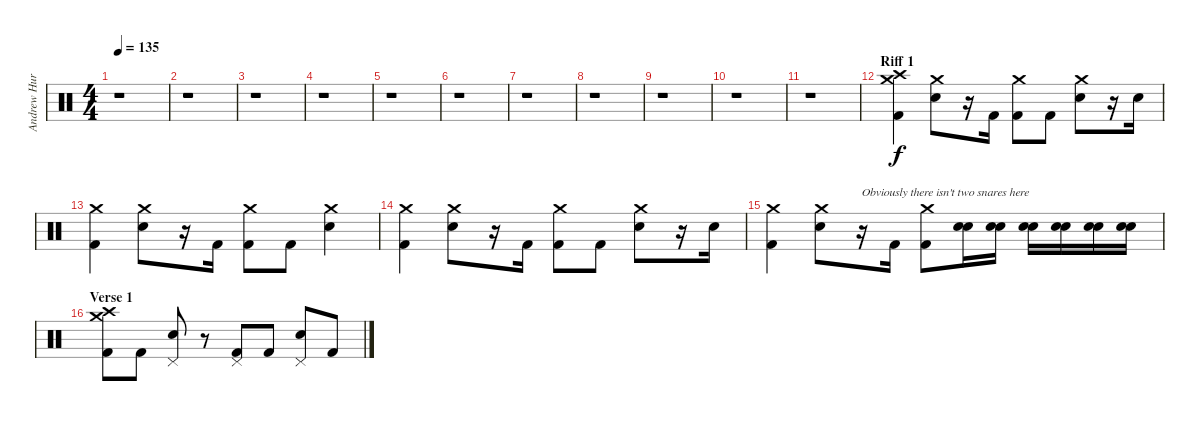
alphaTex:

\track ("Andrew Hurley (Drums)" "Andrew Hur") {instrument percussion}
\staff {score}
\articulation defaults
\ts (4 4)
\tempo 135
\clef neutral
\ks c
r.1{dy f} |
r.1 |
r.1 |
r.1 |
r.1 |
r.1 |
r.1 |
r.1 |
r.1 |
r.1 |
r.1 |
\section ("" "Riff 1")
("Crash high (hit)" "Crash medium (hit)" "Kick (hit) 2").4 ("Crash medium (hit)" "Electric Snare (hit)").8 r.16 "Kick (hit) 2".16 ("Crash medium (hit)" "Kick (hit) 2").8 "Kick (hit) 2".8 ("Crash medium (hit)" "Electric Snare (hit)").8 r.16 "Electric Snare (hit)".16 |
("Crash medium (hit)" "Kick (hit) 2").4 ("Crash medium (hit)" "Electric Snare (hit)").8 r.16 "Kick (hit) 2".16 ("Crash medium (hit)" "Kick (hit) 2").8 "Kick (hit) 2".8 ("Crash medium (hit)" "Electric Snare (hit)").4 |
("Crash medium (hit)" "Kick (hit) 2").4 ("Crash medium (hit)" "Electric Snare (hit)").8 r.16 "Kick (hit) 2".16 ("Crash medium (hit)" "Kick (hit) 2").8 "Kick (hit) 2".8 ("Crash medium (hit)" "Electric Snare (hit)").8 r.16 "Electric Snare (hit)".16 |
("Crash medium (hit)" "Kick (hit) 2").4 ("Crash medium (hit)" "Electric Snare (hit)").8 r.16{txt "Obviously there isn't two snares here"} "Kick (hit) 2".16 ("Crash medium (hit)" "Kick (hit) 2").8 ("Snare (hit) 2" "Electric Snare (hit)").16 ("Snare (hit) 2" "Electric Snare (hit)").16 ("Snare (hit) 2" "Electric Snare (hit)").16 ("Snare (hit) 2" "Electric Snare (hit)").16 ("Snare (hit) 2" "Electric Snare (hit)").16 ("Snare (hit) 2" "Electric Snare (hit)").16 |
\section ("" "Verse 1")
("Crash high (hit)" "Crash medium (hit)" "Kick (hit) 2").8 "Kick (hit) 2".8 ("Pedal Hi-Hat (hit)" "Electric Snare (hit)").8 r.8 ("Pedal Hi-Hat (hit)" "Kick (hit) 2").8 "Kick (hit) 2".8 ("Pedal Hi-Hat (hit)" "Electric Snare (hit)").8 "Kick (hit) 2".8
